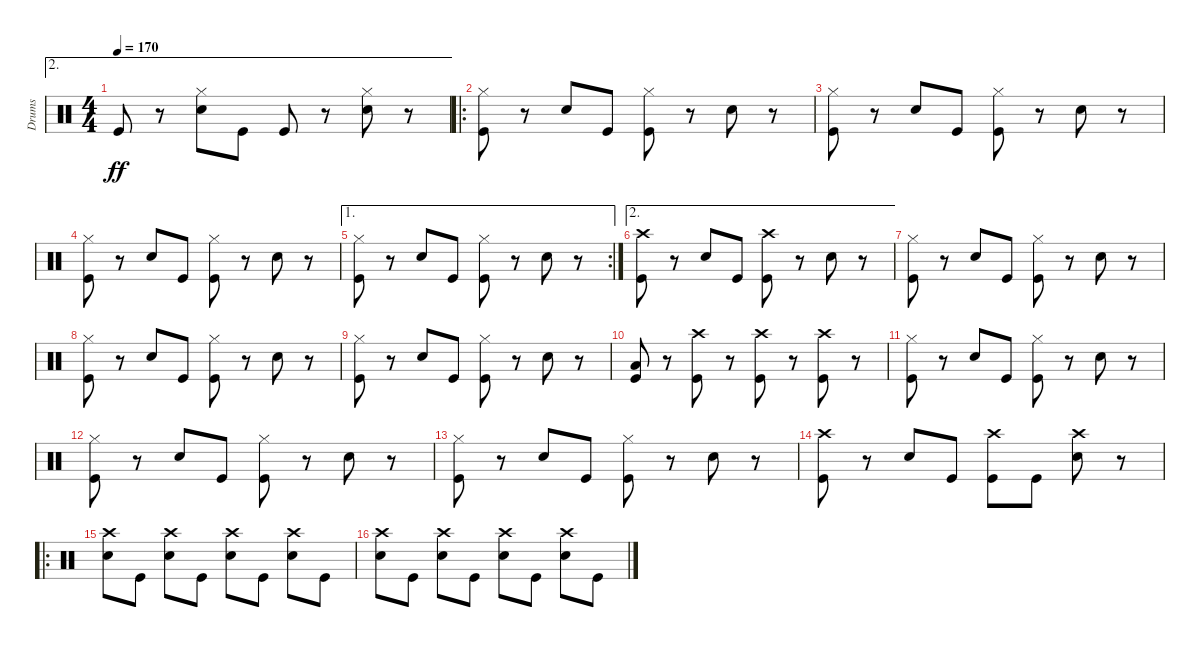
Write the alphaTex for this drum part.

\track ("Drums" "Drums") {instrument percussion}
\staff {score}
\articulation defaults
\ae 2
\ts (4 4)
\tempo 170
\clef neutral
\ks c "Kick (hit)".8{dy ff}
r.8 ("Hi-Hat (closed)" "Snare (hit) 2").8 "Kick (hit)".8 "Kick (hit)".8 r.8 ("Hi-Hat (closed)" "Snare (hit) 2").8 r.8 |
\ro
("Hi-Hat (closed)" "Kick (hit)").8 r.8 "Snare (hit) 2".8 "Kick (hit)".8 ("Hi-Hat (closed)" "Kick (hit)").8 r.8 "Snare (hit) 2".8 r.8 |
("Hi-Hat (closed)" "Kick (hit)").8 r.8 "Snare (hit) 2".8 "Kick (hit)".8 ("Hi-Hat (closed)" "Kick (hit)").8 r.8 "Snare (hit) 2".8 r.8 |
("Hi-Hat (closed)" "Kick (hit)").8 r.8 "Snare (hit) 2".8 "Kick (hit)".8 ("Hi-Hat (closed)" "Kick (hit)").8 r.8 "Snare (hit) 2".8 r.8 |
\ae 1
\rc 2
("Hi-Hat (closed)" "Kick (hit)").8 r.8 "Snare (hit) 2".8 "Kick (hit)".8 ("Hi-Hat (closed)" "Kick (hit)").8 r.8 "Snare (hit) 2".8 r.8 |
\ae 2
("Crash high (hit)" "Kick (hit)").8 r.8 "Snare (hit) 2".8 "Kick (hit)".8 ("Crash high (hit)" "Kick (hit)").8 r.8 "Snare (hit) 2".8 r.8 |
("Hi-Hat (closed)" "Kick (hit)").8 r.8 "Snare (hit) 2".8 "Kick (hit)".8 ("Hi-Hat (closed)" "Kick (hit)").8 r.8 "Snare (hit) 2".8 r.8 |
("Hi-Hat (closed)" "Kick (hit)").8 r.8 "Snare (hit) 2".8 "Kick (hit)".8 ("Hi-Hat (closed)" "Kick (hit)").8 r.8 "Snare (hit) 2".8 r.8 |
("Hi-Hat (closed)" "Kick (hit)").8 r.8 "Snare (hit) 2".8 "Kick (hit)".8 ("Hi-Hat (closed)" "Kick (hit)").8 r.8 "Snare (hit) 2".8 r.8 |
("Low Floor Tom (hit)" "Kick (hit)").8 r.8 ("Crash high (hit)" "Kick (hit)").8 r.8 ("Crash high (hit)" "Kick (hit)").8 r.8 ("Crash high (hit)" "Kick (hit)").8 r.8 |
("Hi-Hat (closed)" "Kick (hit)").8 r.8 "Snare (hit) 2".8 "Kick (hit)".8 ("Hi-Hat (closed)" "Kick (hit)").8 r.8 "Snare (hit) 2".8 r.8 |
("Hi-Hat (closed)" "Kick (hit)").8 r.8 "Snare (hit) 2".8 "Kick (hit)".8 ("Hi-Hat (closed)" "Kick (hit)").8 r.8 "Snare (hit) 2".8 r.8 |
("Hi-Hat (closed)" "Kick (hit)").8 r.8 "Snare (hit) 2".8 "Kick (hit)".8 ("Hi-Hat (closed)" "Kick (hit)").8 r.8 "Snare (hit) 2".8 r.8 |
("Crash high (hit)" "Kick (hit)").8 r.8 "Snare (hit) 2".8 "Kick (hit)".8 ("Crash high (hit)" "Kick (hit)").8 "Kick (hit)".8 ("Crash high (hit)" "Snare (hit) 2").8 r.8 |
\ro
("Crash high (hit)" "Snare (hit) 2").8 "Kick (hit)".8 ("Crash high (hit)" "Snare (hit) 2").8 "Kick (hit)".8 ("Crash high (hit)" "Snare (hit) 2").8 "Kick (hit)".8 ("Crash high (hit)" "Snare (hit) 2").8 "Kick (hit)".8 |
("Crash high (hit)" "Snare (hit) 2").8 "Kick (hit)".8 ("Crash high (hit)" "Snare (hit) 2").8 "Kick (hit)".8 ("Crash high (hit)" "Snare (hit) 2").8 "Kick (hit)".8 ("Crash high (hit)" "Snare (hit) 2").8 "Kick (hit)".8
